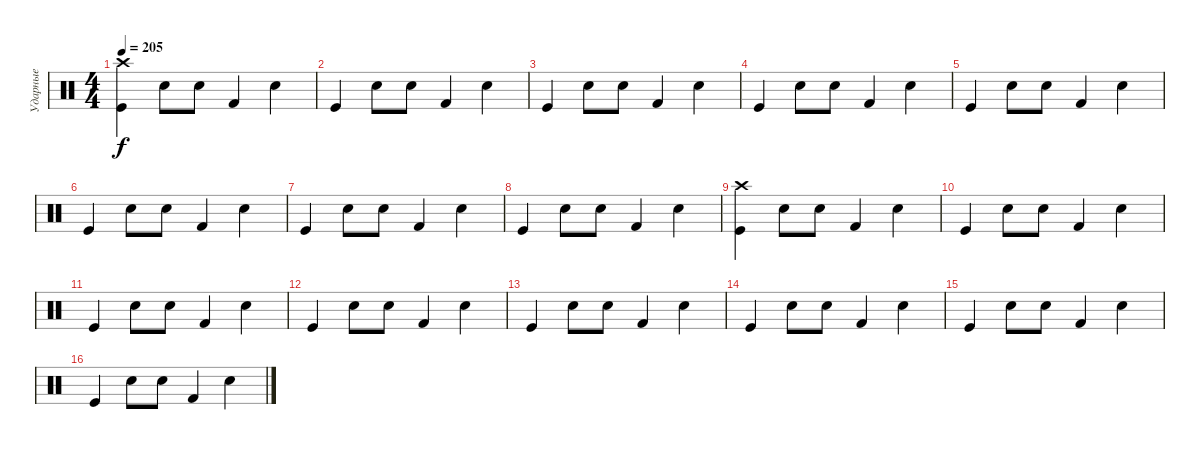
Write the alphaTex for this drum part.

\track ("Ударные" "Ударные") {instrument percussion}
\staff {score}
\articulation defaults
\ts (4 4)
\tempo 205
\clef neutral
\ks c
("Kick (hit)" "Crash high (hit)").4{dy f} "Snare (hit) 2".8 "Snare (hit) 2".8 "Kick (hit) 2".4 "Snare (hit) 2".4 |
"Kick (hit)".4 "Snare (hit) 2".8 "Snare (hit) 2".8 "Kick (hit) 2".4 "Snare (hit) 2".4 |
"Kick (hit)".4 "Snare (hit) 2".8 "Snare (hit) 2".8 "Kick (hit) 2".4 "Snare (hit) 2".4 |
"Kick (hit)".4 "Snare (hit) 2".8 "Snare (hit) 2".8 "Kick (hit) 2".4 "Snare (hit) 2".4 |
"Kick (hit)".4 "Snare (hit) 2".8 "Snare (hit) 2".8 "Kick (hit) 2".4 "Snare (hit) 2".4 |
"Kick (hit)".4 "Snare (hit) 2".8 "Snare (hit) 2".8 "Kick (hit) 2".4 "Snare (hit) 2".4 |
"Kick (hit)".4 "Snare (hit) 2".8 "Snare (hit) 2".8 "Kick (hit) 2".4 "Snare (hit) 2".4 |
"Kick (hit)".4 "Snare (hit) 2".8 "Snare (hit) 2".8 "Kick (hit) 2".4 "Snare (hit) 2".4 |
("Kick (hit)" "Crash high (hit)").4 "Snare (hit) 2".8 "Snare (hit) 2".8 "Kick (hit) 2".4 "Snare (hit) 2".4 |
"Kick (hit)".4 "Snare (hit) 2".8 "Snare (hit) 2".8 "Kick (hit) 2".4 "Snare (hit) 2".4 |
"Kick (hit)".4 "Snare (hit) 2".8 "Snare (hit) 2".8 "Kick (hit) 2".4 "Snare (hit) 2".4 |
"Kick (hit)".4 "Snare (hit) 2".8 "Snare (hit) 2".8 "Kick (hit) 2".4 "Snare (hit) 2".4 |
"Kick (hit)".4 "Snare (hit) 2".8 "Snare (hit) 2".8 "Kick (hit) 2".4 "Snare (hit) 2".4 |
"Kick (hit)".4 "Snare (hit) 2".8 "Snare (hit) 2".8 "Kick (hit) 2".4 "Snare (hit) 2".4 |
"Kick (hit)".4 "Snare (hit) 2".8 "Snare (hit) 2".8 "Kick (hit) 2".4 "Snare (hit) 2".4 |
"Kick (hit)".4 "Snare (hit) 2".8 "Snare (hit) 2".8 "Kick (hit) 2".4 "Snare (hit) 2".4
